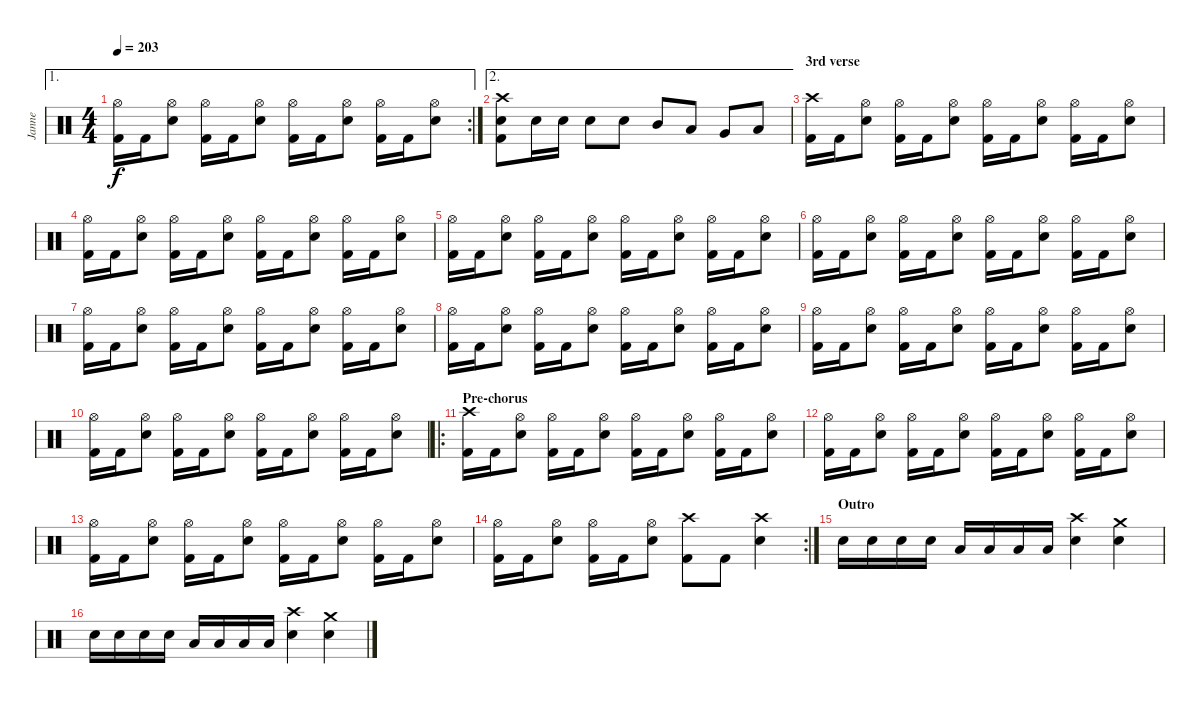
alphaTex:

\track ("Janne" "Janne") {instrument percussion}
\staff {score}
\articulation defaults
\ae 1
\rc 2
\ts (4 4)
\tempo 203
\clef neutral
\ks c
("Hi-Hat (open)" "Kick (hit) 2").16{dy f} "Kick (hit) 2".16 ("Hi-Hat (open)" "Electric Snare (hit)").8 ("Hi-Hat (open)" "Kick (hit) 2").16 "Kick (hit) 2".16 ("Hi-Hat (open)" "Electric Snare (hit)").8 ("Hi-Hat (open)" "Kick (hit) 2").16 "Kick (hit) 2".16 ("Hi-Hat (open)" "Electric Snare (hit)").8 ("Hi-Hat (open)" "Kick (hit) 2").16 "Kick (hit) 2".16 ("Hi-Hat (open)" "Electric Snare (hit)").8 |
\ae 2
("Crash high (hit)" "Electric Snare (hit)" "Kick (hit) 2").8 "Electric Snare (hit)".16 "Electric Snare (hit)".16 "Electric Snare (hit)".8 "Electric Snare (hit)".8 "Mid Tom (hit)".8 "Low Tom (hit)".8 "Very Low Tom (hit)".8 "Low Floor Tom (hit)".8 |
\section ("" "3rd verse")
("Crash high (hit)" "Kick (hit) 2").16 "Kick (hit) 2".16 ("Hi-Hat (open)" "Electric Snare (hit)").8 ("Hi-Hat (open)" "Kick (hit) 2").16 "Kick (hit) 2".16 ("Hi-Hat (open)" "Electric Snare (hit)").8 ("Hi-Hat (open)" "Kick (hit) 2").16 "Kick (hit) 2".16 ("Hi-Hat (open)" "Electric Snare (hit)").8 ("Hi-Hat (open)" "Kick (hit) 2").16 "Kick (hit) 2".16 ("Hi-Hat (open)" "Electric Snare (hit)").8 |
("Hi-Hat (open)" "Kick (hit) 2").16 "Kick (hit) 2".16 ("Hi-Hat (open)" "Electric Snare (hit)").8 ("Hi-Hat (open)" "Kick (hit) 2").16 "Kick (hit) 2".16 ("Hi-Hat (open)" "Electric Snare (hit)").8 ("Hi-Hat (open)" "Kick (hit) 2").16 "Kick (hit) 2".16 ("Hi-Hat (open)" "Electric Snare (hit)").8 ("Hi-Hat (open)" "Kick (hit) 2").16 "Kick (hit) 2".16 ("Hi-Hat (open)" "Electric Snare (hit)").8 |
("Hi-Hat (open)" "Kick (hit) 2").16 "Kick (hit) 2".16 ("Hi-Hat (open)" "Electric Snare (hit)").8 ("Hi-Hat (open)" "Kick (hit) 2").16 "Kick (hit) 2".16 ("Hi-Hat (open)" "Electric Snare (hit)").8 ("Hi-Hat (open)" "Kick (hit) 2").16 "Kick (hit) 2".16 ("Hi-Hat (open)" "Electric Snare (hit)").8 ("Hi-Hat (open)" "Kick (hit) 2").16 "Kick (hit) 2".16 ("Hi-Hat (open)" "Electric Snare (hit)").8 |
("Hi-Hat (open)" "Kick (hit) 2").16 "Kick (hit) 2".16 ("Hi-Hat (open)" "Electric Snare (hit)").8 ("Hi-Hat (open)" "Kick (hit) 2").16 "Kick (hit) 2".16 ("Hi-Hat (open)" "Electric Snare (hit)").8 ("Hi-Hat (open)" "Kick (hit) 2").16 "Kick (hit) 2".16 ("Hi-Hat (open)" "Electric Snare (hit)").8 ("Hi-Hat (open)" "Kick (hit) 2").16 "Kick (hit) 2".16 ("Hi-Hat (open)" "Electric Snare (hit)").8 |
("Hi-Hat (open)" "Kick (hit) 2").16 "Kick (hit) 2".16 ("Hi-Hat (open)" "Electric Snare (hit)").8 ("Hi-Hat (open)" "Kick (hit) 2").16 "Kick (hit) 2".16 ("Hi-Hat (open)" "Electric Snare (hit)").8 ("Hi-Hat (open)" "Kick (hit) 2").16 "Kick (hit) 2".16 ("Hi-Hat (open)" "Electric Snare (hit)").8 ("Hi-Hat (open)" "Kick (hit) 2").16 "Kick (hit) 2".16 ("Hi-Hat (open)" "Electric Snare (hit)").8 |
("Hi-Hat (open)" "Kick (hit) 2").16 "Kick (hit) 2".16 ("Hi-Hat (open)" "Electric Snare (hit)").8 ("Hi-Hat (open)" "Kick (hit) 2").16 "Kick (hit) 2".16 ("Hi-Hat (open)" "Electric Snare (hit)").8 ("Hi-Hat (open)" "Kick (hit) 2").16 "Kick (hit) 2".16 ("Hi-Hat (open)" "Electric Snare (hit)").8 ("Hi-Hat (open)" "Kick (hit) 2").16 "Kick (hit) 2".16 ("Hi-Hat (open)" "Electric Snare (hit)").8 |
("Hi-Hat (open)" "Kick (hit) 2").16 "Kick (hit) 2".16 ("Hi-Hat (open)" "Electric Snare (hit)").8 ("Hi-Hat (open)" "Kick (hit) 2").16 "Kick (hit) 2".16 ("Hi-Hat (open)" "Electric Snare (hit)").8 ("Hi-Hat (open)" "Kick (hit) 2").16 "Kick (hit) 2".16 ("Hi-Hat (open)" "Electric Snare (hit)").8 ("Hi-Hat (open)" "Kick (hit) 2").16 "Kick (hit) 2".16 ("Hi-Hat (open)" "Electric Snare (hit)").8 |
("Hi-Hat (open)" "Kick (hit) 2").16 "Kick (hit) 2".16 ("Hi-Hat (open)" "Electric Snare (hit)").8 ("Hi-Hat (open)" "Kick (hit) 2").16 "Kick (hit) 2".16 ("Hi-Hat (open)" "Electric Snare (hit)").8 ("Hi-Hat (open)" "Kick (hit) 2").16 "Kick (hit) 2".16 ("Hi-Hat (open)" "Electric Snare (hit)").8 ("Hi-Hat (open)" "Kick (hit) 2").16 "Kick (hit) 2".16 ("Hi-Hat (open)" "Electric Snare (hit)").8 |
\ro
\section ("" "Pre-chorus")
("Crash high (hit)" "Kick (hit) 2").16 "Kick (hit) 2".16 ("Hi-Hat (open)" "Electric Snare (hit)").8 ("Hi-Hat (open)" "Kick (hit) 2").16 "Kick (hit) 2".16 ("Hi-Hat (open)" "Electric Snare (hit)").8 ("Hi-Hat (open)" "Kick (hit) 2").16 "Kick (hit) 2".16 ("Hi-Hat (open)" "Electric Snare (hit)").8 ("Hi-Hat (open)" "Kick (hit) 2").16 "Kick (hit) 2".16 ("Hi-Hat (open)" "Electric Snare (hit)").8 |
("Hi-Hat (open)" "Kick (hit) 2").16 "Kick (hit) 2".16 ("Hi-Hat (open)" "Electric Snare (hit)").8 ("Hi-Hat (open)" "Kick (hit) 2").16 "Kick (hit) 2".16 ("Hi-Hat (open)" "Electric Snare (hit)").8 ("Hi-Hat (open)" "Kick (hit) 2").16 "Kick (hit) 2".16 ("Hi-Hat (open)" "Electric Snare (hit)").8 ("Hi-Hat (open)" "Kick (hit) 2").16 "Kick (hit) 2".16 ("Hi-Hat (open)" "Electric Snare (hit)").8 |
("Hi-Hat (open)" "Kick (hit) 2").16 "Kick (hit) 2".16 ("Hi-Hat (open)" "Electric Snare (hit)").8 ("Hi-Hat (open)" "Kick (hit) 2").16 "Kick (hit) 2".16 ("Hi-Hat (open)" "Electric Snare (hit)").8 ("Hi-Hat (open)" "Kick (hit) 2").16 "Kick (hit) 2".16 ("Hi-Hat (open)" "Electric Snare (hit)").8 ("Hi-Hat (open)" "Kick (hit) 2").16 "Kick (hit) 2".16 ("Hi-Hat (open)" "Electric Snare (hit)").8 |
\rc 2
("Hi-Hat (open)" "Kick (hit) 2").16 "Kick (hit) 2".16 ("Hi-Hat (open)" "Electric Snare (hit)").8 ("Hi-Hat (open)" "Kick (hit) 2").16 "Kick (hit) 2".16 ("Hi-Hat (open)" "Electric Snare (hit)").8 ("Crash high (hit)" "Kick (hit) 2").8 "Kick (hit) 2".8 ("Crash high (hit)" "Electric Snare (hit)").4 |
\section ("" "Outro")
"Electric Snare (hit)".16 "Electric Snare (hit)".16 "Electric Snare (hit)".16 "Electric Snare (hit)".16 "Low Tom (hit)".16 "Low Tom (hit)".16 "Low Tom (hit)".16 "Low Tom (hit)".16 ("Crash high (hit)" "Electric Snare (hit)").4 ("Crash medium (hit)" "Electric Snare (hit)").4 |
"Electric Snare (hit)".16 "Electric Snare (hit)".16 "Electric Snare (hit)".16 "Electric Snare (hit)".16 "Low Tom (hit)".16 "Low Tom (hit)".16 "Low Tom (hit)".16 "Low Tom (hit)".16 ("Crash high (hit)" "Electric Snare (hit)").4 ("Crash medium (hit)" "Electric Snare (hit)").4
